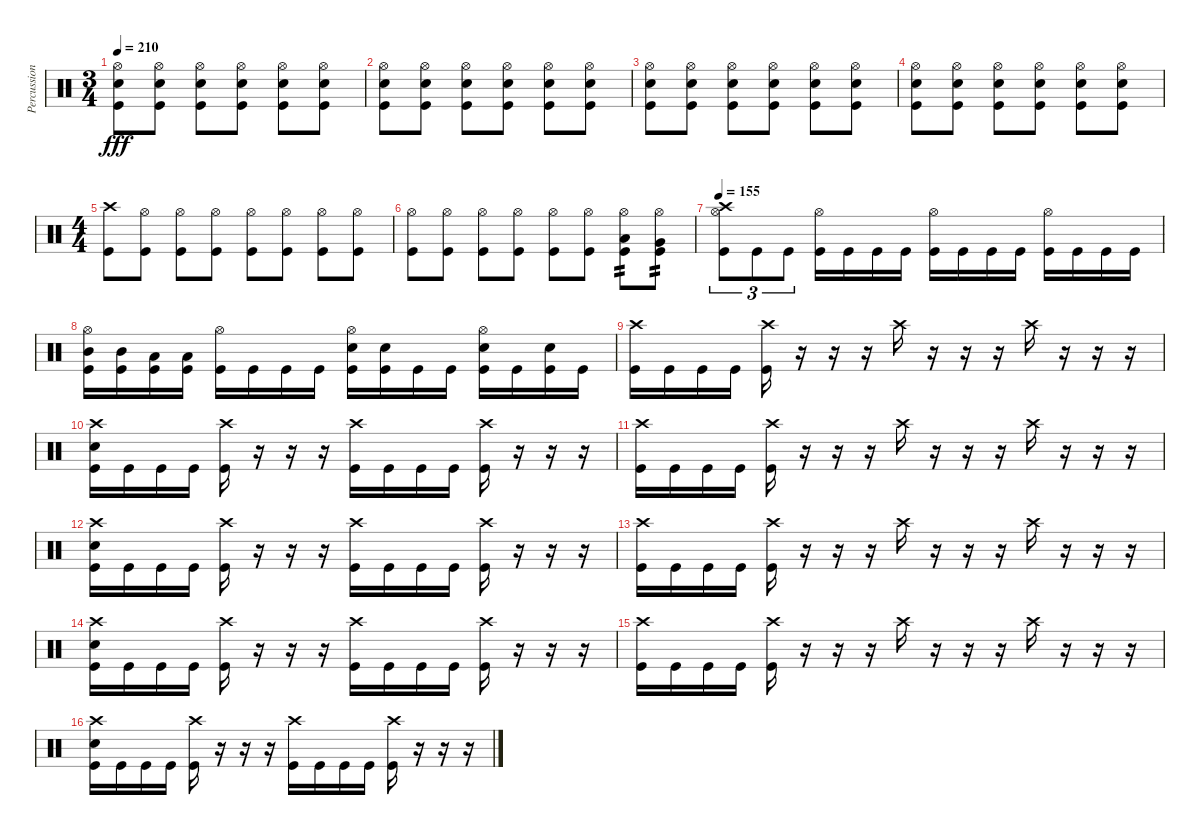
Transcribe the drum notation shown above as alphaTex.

\track ("Percussion" "Percussion") {instrument percussion}
\staff {score}
\articulation defaults
\ts (3 4)
\tempo 210
\clef neutral
\ks c
("Hi-Hat (open)" "Electric Snare (hit)" "Kick (hit)").8{dy fff} ("Hi-Hat (open)" "Electric Snare (hit)" "Kick (hit)").8 ("Hi-Hat (open)" "Electric Snare (hit)" "Kick (hit)").8 ("Hi-Hat (open)" "Electric Snare (hit)" "Kick (hit)").8 ("Hi-Hat (open)" "Electric Snare (hit)" "Kick (hit)").8 ("Hi-Hat (open)" "Electric Snare (hit)" "Kick (hit)").8 |
("Hi-Hat (open)" "Electric Snare (hit)" "Kick (hit)").8 ("Hi-Hat (open)" "Electric Snare (hit)" "Kick (hit)").8 ("Hi-Hat (open)" "Electric Snare (hit)" "Kick (hit)").8 ("Hi-Hat (open)" "Electric Snare (hit)" "Kick (hit)").8 ("Hi-Hat (open)" "Electric Snare (hit)" "Kick (hit)").8 ("Hi-Hat (open)" "Electric Snare (hit)" "Kick (hit)").8 |
("Hi-Hat (open)" "Electric Snare (hit)" "Kick (hit)").8 ("Hi-Hat (open)" "Electric Snare (hit)" "Kick (hit)").8 ("Hi-Hat (open)" "Electric Snare (hit)" "Kick (hit)").8 ("Hi-Hat (open)" "Electric Snare (hit)" "Kick (hit)").8 ("Hi-Hat (open)" "Electric Snare (hit)" "Kick (hit)").8 ("Hi-Hat (open)" "Electric Snare (hit)" "Kick (hit)").8 |
("Hi-Hat (open)" "Electric Snare (hit)" "Kick (hit)").8 ("Hi-Hat (open)" "Electric Snare (hit)" "Kick (hit)").8 ("Hi-Hat (open)" "Electric Snare (hit)" "Kick (hit)").8 ("Hi-Hat (open)" "Electric Snare (hit)" "Kick (hit)").8 ("Hi-Hat (open)" "Electric Snare (hit)" "Kick (hit)").8 ("Hi-Hat (open)" "Electric Snare (hit)" "Kick (hit)").8 |
\ts (4 4)
("Crash high (hit)" "Kick (hit)").8 ("Hi-Hat (open)" "Kick (hit)").8 ("Hi-Hat (open)" "Kick (hit)").8 ("Hi-Hat (open)" "Kick (hit)").8 ("Hi-Hat (open)" "Kick (hit)").8 ("Hi-Hat (open)" "Kick (hit)").8 ("Hi-Hat (open)" "Kick (hit)").8 ("Hi-Hat (open)" "Kick (hit)").8 |
("Hi-Hat (open)" "Kick (hit)").8 ("Hi-Hat (open)" "Kick (hit)").8 ("Hi-Hat (open)" "Kick (hit)").8 ("Hi-Hat (open)" "Kick (hit)").8 ("Hi-Hat (open)" "Kick (hit)").8 ("Hi-Hat (open)" "Kick (hit)").8 ("Hi-Hat (open)" "Low Tom (hit)" "Kick (hit)").8{tp 2} ("Hi-Hat (open)" "Very Low Tom (hit)" "Kick (hit)").8{tp 2} |
\tempo 155
("Hi-Hat (open)" "Crash high (hit)" "Kick (hit)").8{tu (3 2)} "Kick (hit)".8{tu (3 2)} "Kick (hit)".8{tu (3 2)} ("Hi-Hat (open)" "Kick (hit)").16 "Kick (hit)".16 "Kick (hit)".16 "Kick (hit)".16 ("Hi-Hat (open)" "Kick (hit)").16 "Kick (hit)".16 "Kick (hit)".16 "Kick (hit)".16 ("Hi-Hat (open)" "Kick (hit)").16 "Kick (hit)".16 "Kick (hit)".16 "Kick (hit)".16 |
("Hi-Hat (open)" "Mid Tom (hit)" "Kick (hit)").16 ("Mid Tom (hit)" "Kick (hit)").16 ("Low Tom (hit)" "Kick (hit)").16 ("Low Tom (hit)" "Kick (hit)").16 ("Hi-Hat (open)" "Kick (hit)").16 "Kick (hit)".16 "Kick (hit)".16 "Kick (hit)".16 ("Hi-Hat (open)" "Electric Snare (hit)" "Kick (hit)").16 ("Electric Snare (hit)" "Kick (hit)").16 "Kick (hit)".16 "Kick (hit)".16 ("Hi-Hat (open)" "Electric Snare (hit)" "Kick (hit)").16 "Kick (hit)".16 ("Electric Snare (hit)" "Kick (hit)").16 "Kick (hit)".16 |
("Crash high (hit)" "Kick (hit)").16 "Kick (hit)".16 "Kick (hit)".16 "Kick (hit)".16 ("Crash high (hit)" "Kick (hit)").16 r.16 r.16 r.16 "Crash high (hit)".16 r.16 r.16 r.16 "Crash high (hit)".16 r.16 r.16 r.16 |
("Crash high (hit)" "Electric Snare (hit)" "Kick (hit)").16 "Kick (hit)".16 "Kick (hit)".16 "Kick (hit)".16 ("Crash high (hit)" "Kick (hit)").16 r.16 r.16 r.16 ("Crash high (hit)" "Kick (hit)").16 "Kick (hit)".16 "Kick (hit)".16 "Kick (hit)".16 ("Crash high (hit)" "Kick (hit)").16 r.16 r.16 r.16 |
("Crash high (hit)" "Kick (hit)").16 "Kick (hit)".16 "Kick (hit)".16 "Kick (hit)".16 ("Crash high (hit)" "Kick (hit)").16 r.16 r.16 r.16 "Crash high (hit)".16 r.16 r.16 r.16 "Crash high (hit)".16 r.16 r.16 r.16 |
("Crash high (hit)" "Electric Snare (hit)" "Kick (hit)").16 "Kick (hit)".16 "Kick (hit)".16 "Kick (hit)".16 ("Crash high (hit)" "Kick (hit)").16 r.16 r.16 r.16 ("Crash high (hit)" "Kick (hit)").16 "Kick (hit)".16 "Kick (hit)".16 "Kick (hit)".16 ("Crash high (hit)" "Kick (hit)").16 r.16 r.16 r.16 |
("Crash high (hit)" "Kick (hit)").16 "Kick (hit)".16 "Kick (hit)".16 "Kick (hit)".16 ("Crash high (hit)" "Kick (hit)").16 r.16 r.16 r.16 "Crash high (hit)".16 r.16 r.16 r.16 "Crash high (hit)".16 r.16 r.16 r.16 |
("Crash high (hit)" "Electric Snare (hit)" "Kick (hit)").16 "Kick (hit)".16 "Kick (hit)".16 "Kick (hit)".16 ("Crash high (hit)" "Kick (hit)").16 r.16 r.16 r.16 ("Crash high (hit)" "Kick (hit)").16 "Kick (hit)".16 "Kick (hit)".16 "Kick (hit)".16 ("Crash high (hit)" "Kick (hit)").16 r.16 r.16 r.16 |
("Crash high (hit)" "Kick (hit)").16 "Kick (hit)".16 "Kick (hit)".16 "Kick (hit)".16 ("Crash high (hit)" "Kick (hit)").16 r.16 r.16 r.16 "Crash high (hit)".16 r.16 r.16 r.16 "Crash high (hit)".16 r.16 r.16 r.16 |
("Crash high (hit)" "Electric Snare (hit)" "Kick (hit)").16 "Kick (hit)".16 "Kick (hit)".16 "Kick (hit)".16 ("Crash high (hit)" "Kick (hit)").16 r.16 r.16 r.16 ("Crash high (hit)" "Kick (hit)").16 "Kick (hit)".16 "Kick (hit)".16 "Kick (hit)".16 ("Crash high (hit)" "Kick (hit)").16 r.16 r.16 r.16
